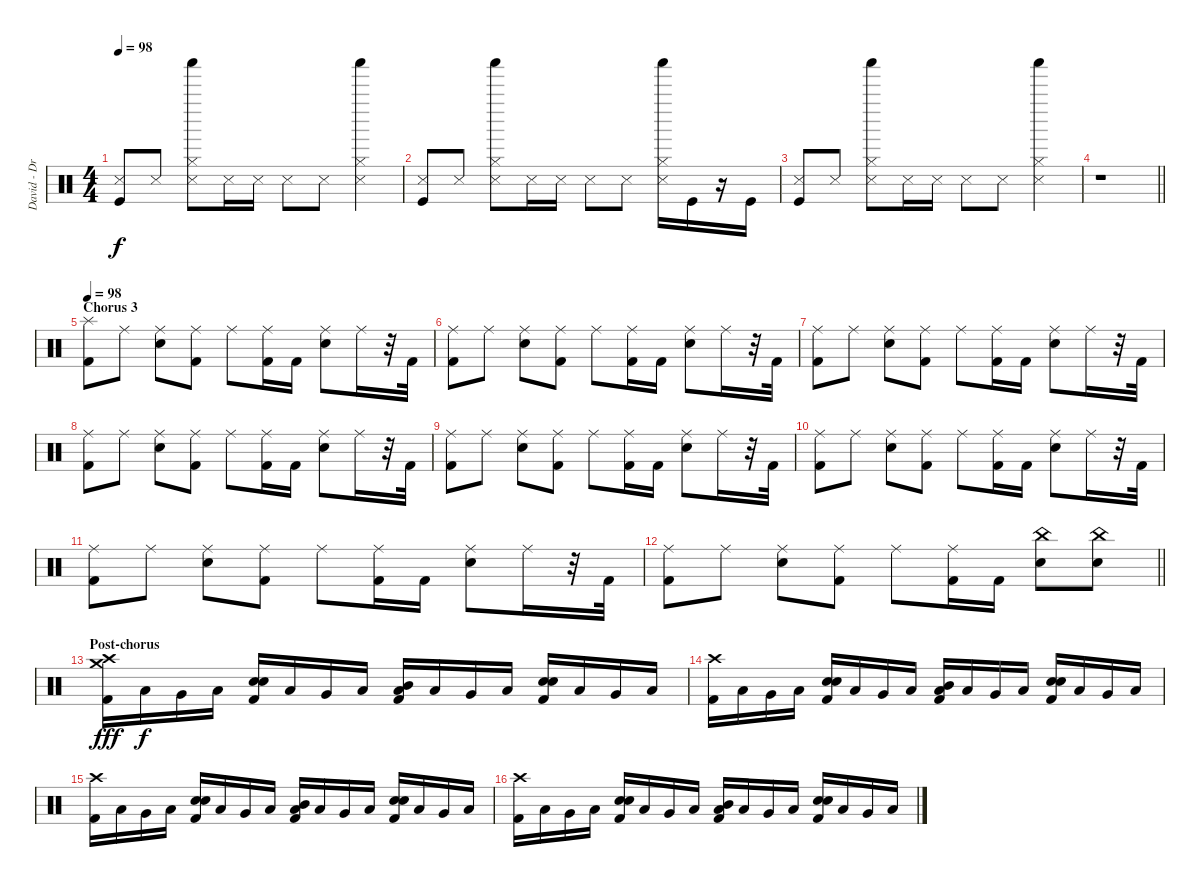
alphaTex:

\track ("David - Drums" "David - Dr") {instrument percussion}
\staff {score}
\articulation defaults
\ts (4 4)
\tempo 98
\clef neutral
\ks c
("Kick (hit)" "Metronome (hit)").8{dy f} "Metronome (hit)".8 ("Shaker (hit)" "Hi-Hat (closed)" "Metronome (hit)").8 "Metronome (hit)".16 "Metronome (hit)".16 "Metronome (hit)".8 "Metronome (hit)".8 ("Shaker (hit)" "Hi-Hat (closed)" "Metronome (hit)").4 |
("Kick (hit)" "Metronome (hit)").8 "Metronome (hit)".8 ("Shaker (hit)" "Hi-Hat (closed)" "Metronome (hit)").8 "Metronome (hit)".16 "Metronome (hit)".16 "Metronome (hit)".8 "Metronome (hit)".8 ("Shaker (hit)" "Hi-Hat (closed)" "Metronome (hit)").16 "Kick (hit)".16 r.16 "Kick (hit)".16 |
("Kick (hit)" "Metronome (hit)").8 "Metronome (hit)".8 ("Shaker (hit)" "Hi-Hat (closed)" "Metronome (hit)").8 "Metronome (hit)".16 "Metronome (hit)".16 "Metronome (hit)".8 "Metronome (hit)".8 ("Shaker (hit)" "Hi-Hat (closed)" "Metronome (hit)").4 |
\barLineRight lightlight
r.1 |
\section ("" "Chorus 3")
\tempo 98
("Splash (hit)" "Kick (hit) 2").8 "Ride (middle)".8 ("Ride (middle)" "Snare (hit) 2").8 ("Ride (middle)" "Kick (hit) 2").8 "Ride (middle)".8 ("Ride (middle)" "Kick (hit) 2").16 "Kick (hit) 2".16 ("Ride (middle)" "Snare (hit) 2").8 "Ride (middle)".16 r.32 "Kick (hit) 2".32 |
("Ride (middle)" "Kick (hit) 2").8 "Ride (middle)".8 ("Ride (middle)" "Snare (hit) 2").8 ("Ride (middle)" "Kick (hit) 2").8 "Ride (middle)".8 ("Ride (middle)" "Kick (hit) 2").16 "Kick (hit) 2".16 ("Ride (middle)" "Snare (hit) 2").8 "Ride (middle)".16 r.32 "Kick (hit) 2".32 |
("Ride (middle)" "Kick (hit) 2").8 "Ride (middle)".8 ("Ride (middle)" "Snare (hit) 2").8 ("Ride (middle)" "Kick (hit) 2").8 "Ride (middle)".8 ("Ride (middle)" "Kick (hit) 2").16 "Kick (hit) 2".16 ("Ride (middle)" "Snare (hit) 2").8 "Ride (middle)".16 r.32 "Kick (hit) 2".32 |
("Ride (middle)" "Kick (hit) 2").8 "Ride (middle)".8 ("Ride (middle)" "Snare (hit) 2").8 ("Ride (middle)" "Kick (hit) 2").8 "Ride (middle)".8 ("Ride (middle)" "Kick (hit) 2").16 "Kick (hit) 2".16 ("Ride (middle)" "Snare (hit) 2").8 "Ride (middle)".16 r.32 "Kick (hit) 2".32 |
("Ride (middle)" "Kick (hit) 2").8 "Ride (middle)".8 ("Ride (middle)" "Snare (hit) 2").8 ("Ride (middle)" "Kick (hit) 2").8 "Ride (middle)".8 ("Ride (middle)" "Kick (hit) 2").16 "Kick (hit) 2".16 ("Ride (middle)" "Snare (hit) 2").8 "Ride (middle)".16 r.32 "Kick (hit) 2".32 |
("Ride (middle)" "Kick (hit) 2").8 "Ride (middle)".8 ("Ride (middle)" "Snare (hit) 2").8 ("Ride (middle)" "Kick (hit) 2").8 "Ride (middle)".8 ("Ride (middle)" "Kick (hit) 2").16 "Kick (hit) 2".16 ("Ride (middle)" "Snare (hit) 2").8 "Ride (middle)".16 r.32 "Kick (hit) 2".32 |
("Ride (middle)" "Kick (hit) 2").8 "Ride (middle)".8 ("Ride (middle)" "Snare (hit) 2").8 ("Ride (middle)" "Kick (hit) 2").8 "Ride (middle)".8 ("Ride (middle)" "Kick (hit) 2").16 "Kick (hit) 2".16 ("Ride (middle)" "Snare (hit) 2").8 "Ride (middle)".16 r.32 "Kick (hit) 2".32 |
\barLineRight lightlight
("Ride (middle)" "Kick (hit) 2").8 "Ride (middle)".8 ("Ride (middle)" "Snare (hit) 2").8 ("Ride (middle)" "Kick (hit) 2").8 "Ride (middle)".8 ("Ride (middle)" "Kick (hit) 2").16 "Kick (hit) 2".16 ("China (hit)" "Snare (hit) 2").8 ("China (hit)" "Snare (hit) 2").8 |
\section ("" "Post-chorus")
("Crash medium (hit)" "Crash high (hit)" "Kick (hit) 2").16{dy fff} "Low Tom (hit)".16{dy f} "Very Low Tom (hit)".16 "Low Floor Tom (hit)".16 ("Electric Snare (hit)" "Electric Snare (hit)" "Kick (hit) 2").16{bd 240} "Low Tom (hit)".16 "Very Low Tom (hit)".16 "Low Floor Tom (hit)".16 ("Mid Tom (hit)" "Low Tom (hit)" "Kick (hit) 2").16{bd 240} "Low Tom (hit)".16 "Very Low Tom (hit)".16 "Low Floor Tom (hit)".16 ("Electric Snare (hit)" "Electric Snare (hit)" "Kick (hit) 2").16{bd 240} "Low Tom (hit)".16 "Very Low Tom (hit)".16 "Low Floor Tom (hit)".16 |
("Crash high (hit)" "Kick (hit) 2").16 "Low Tom (hit)".16 "Very Low Tom (hit)".16 "Low Floor Tom (hit)".16 ("Electric Snare (hit)" "Electric Snare (hit)" "Kick (hit) 2").16{bd 240} "Low Tom (hit)".16 "Very Low Tom (hit)".16 "Low Floor Tom (hit)".16 ("Mid Tom (hit)" "Low Tom (hit)" "Kick (hit) 2").16{bd 240} "Low Tom (hit)".16 "Very Low Tom (hit)".16 "Low Floor Tom (hit)".16 ("Electric Snare (hit)" "Electric Snare (hit)" "Kick (hit) 2").16{bd 240} "Low Tom (hit)".16 "Very Low Tom (hit)".16 "Low Floor Tom (hit)".16 |
("Crash high (hit)" "Kick (hit) 2").16 "Low Tom (hit)".16 "Very Low Tom (hit)".16 "Low Floor Tom (hit)".16 ("Electric Snare (hit)" "Electric Snare (hit)" "Kick (hit) 2").16{bd 240} "Low Tom (hit)".16 "Very Low Tom (hit)".16 "Low Floor Tom (hit)".16 ("Mid Tom (hit)" "Low Tom (hit)" "Kick (hit) 2").16{bd 240} "Low Tom (hit)".16 "Very Low Tom (hit)".16 "Low Floor Tom (hit)".16 ("Electric Snare (hit)" "Electric Snare (hit)" "Kick (hit) 2").16{bd 240} "Low Tom (hit)".16 "Very Low Tom (hit)".16 "Low Floor Tom (hit)".16 |
("Crash high (hit)" "Kick (hit) 2").16 "Low Tom (hit)".16 "Very Low Tom (hit)".16 "Low Floor Tom (hit)".16 ("Electric Snare (hit)" "Electric Snare (hit)" "Kick (hit) 2").16{bd 240} "Low Tom (hit)".16 "Very Low Tom (hit)".16 "Low Floor Tom (hit)".16 ("Mid Tom (hit)" "Low Tom (hit)" "Kick (hit) 2").16{bd 240} "Low Tom (hit)".16 "Very Low Tom (hit)".16 "Low Floor Tom (hit)".16 ("Electric Snare (hit)" "Electric Snare (hit)" "Kick (hit) 2").16{bd 240} "Low Tom (hit)".16 "Very Low Tom (hit)".16 "Low Floor Tom (hit)".16
